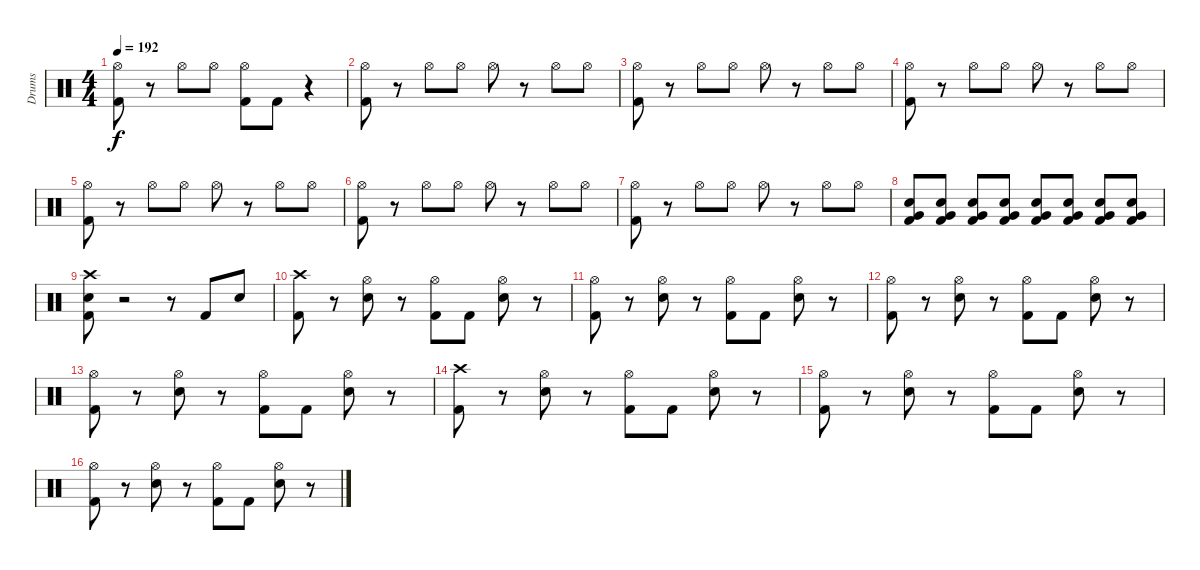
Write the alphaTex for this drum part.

\track ("Drums" "Drums") {instrument percussion}
\staff {score}
\articulation defaults
\ts (4 4)
\tempo 192
\clef neutral
\ks c
("Kick (hit) 2" "Hi-Hat (open)").8{dy f} r.8 "Hi-Hat (open)".8 "Hi-Hat (open)".8 ("Kick (hit) 2" "Hi-Hat (open)").8 "Kick (hit) 2".8 r.4 |
("Kick (hit) 2" "Hi-Hat (open)").8 r.8 "Hi-Hat (open)".8 "Hi-Hat (open)".8 "Hi-Hat (open)".8 r.8 "Hi-Hat (open)".8 "Hi-Hat (open)".8 |
("Kick (hit) 2" "Hi-Hat (open)").8 r.8 "Hi-Hat (open)".8 "Hi-Hat (open)".8 "Hi-Hat (open)".8 r.8 "Hi-Hat (open)".8 "Hi-Hat (open)".8 |
("Kick (hit) 2" "Hi-Hat (open)").8 r.8 "Hi-Hat (open)".8 "Hi-Hat (open)".8 "Hi-Hat (open)".8 r.8 "Hi-Hat (open)".8 "Hi-Hat (open)".8 |
("Kick (hit) 2" "Hi-Hat (open)").8 r.8 "Hi-Hat (open)".8 "Hi-Hat (open)".8 "Hi-Hat (open)".8 r.8 "Hi-Hat (open)".8 "Hi-Hat (open)".8 |
("Kick (hit) 2" "Hi-Hat (open)").8 r.8 "Hi-Hat (open)".8 "Hi-Hat (open)".8 "Hi-Hat (open)".8 r.8 "Hi-Hat (open)".8 "Hi-Hat (open)".8 |
("Kick (hit) 2" "Hi-Hat (open)").8 r.8 "Hi-Hat (open)".8 "Hi-Hat (open)".8 "Hi-Hat (open)".8 r.8 "Hi-Hat (open)".8 "Hi-Hat (open)".8 |
("Electric Snare (hit)" "Very Low Tom (hit)" "Kick (hit) 2").8 ("Electric Snare (hit)" "Very Low Tom (hit)" "Kick (hit) 2").8 ("Electric Snare (hit)" "Very Low Tom (hit)" "Kick (hit) 2").8 ("Electric Snare (hit)" "Very Low Tom (hit)" "Kick (hit) 2").8 ("Electric Snare (hit)" "Very Low Tom (hit)" "Kick (hit) 2").8 ("Electric Snare (hit)" "Very Low Tom (hit)" "Kick (hit) 2").8 ("Electric Snare (hit)" "Very Low Tom (hit)" "Kick (hit) 2").8 ("Electric Snare (hit)" "Very Low Tom (hit)" "Kick (hit) 2").8 |
("Crash high (hit)" "Electric Snare (hit)" "Kick (hit) 2").8 r.2 r.8 "Kick (hit) 2".8 "Electric Snare (hit)".8 |
("Crash high (hit)" "Kick (hit) 2").8 r.8 ("Hi-Hat (open)" "Electric Snare (hit)").8 r.8 ("Hi-Hat (open)" "Kick (hit) 2").8 "Kick (hit) 2".8 ("Hi-Hat (open)" "Electric Snare (hit)").8 r.8 |
("Hi-Hat (open)" "Kick (hit) 2").8 r.8 ("Hi-Hat (open)" "Electric Snare (hit)").8 r.8 ("Hi-Hat (open)" "Kick (hit) 2").8 "Kick (hit) 2".8 ("Hi-Hat (open)" "Electric Snare (hit)").8 r.8 |
("Hi-Hat (open)" "Kick (hit) 2").8 r.8 ("Hi-Hat (open)" "Electric Snare (hit)").8 r.8 ("Hi-Hat (open)" "Kick (hit) 2").8 "Kick (hit) 2".8 ("Hi-Hat (open)" "Electric Snare (hit)").8 r.8 |
("Hi-Hat (open)" "Kick (hit) 2").8 r.8 ("Hi-Hat (open)" "Electric Snare (hit)").8 r.8 ("Hi-Hat (open)" "Kick (hit) 2").8 "Kick (hit) 2".8 ("Hi-Hat (open)" "Electric Snare (hit)").8 r.8 |
("Crash high (hit)" "Kick (hit) 2").8 r.8 ("Hi-Hat (open)" "Electric Snare (hit)").8 r.8 ("Hi-Hat (open)" "Kick (hit) 2").8 "Kick (hit) 2".8 ("Hi-Hat (open)" "Electric Snare (hit)").8 r.8 |
("Hi-Hat (open)" "Kick (hit) 2").8 r.8 ("Hi-Hat (open)" "Electric Snare (hit)").8 r.8 ("Hi-Hat (open)" "Kick (hit) 2").8 "Kick (hit) 2".8 ("Hi-Hat (open)" "Electric Snare (hit)").8 r.8 |
("Hi-Hat (open)" "Kick (hit) 2").8 r.8 ("Hi-Hat (open)" "Electric Snare (hit)").8 r.8 ("Hi-Hat (open)" "Kick (hit) 2").8 "Kick (hit) 2".8 ("Hi-Hat (open)" "Electric Snare (hit)").8 r.8
